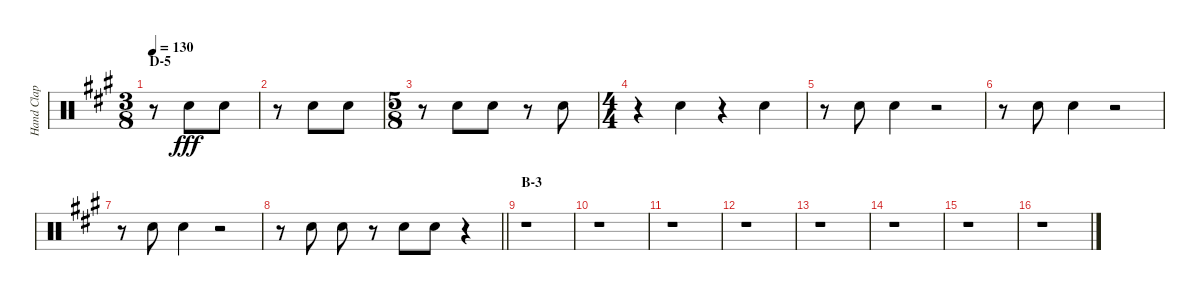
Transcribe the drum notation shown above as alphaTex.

\track ("Hand Clap" "Hand Clap") {instrument percussion}
\staff {score}
\articulation defaults
\ts (3 8)
\section ("" "D-5")
\tempo 130
\clef neutral
\ks a
r.8{dy fff} "Hand Clap (hit)".8 "Hand Clap (hit)".8 |
r.8 "Hand Clap (hit)".8 "Hand Clap (hit)".8 |
\ts (5 8)
r.8 "Hand Clap (hit)".8 "Hand Clap (hit)".8 r.8 "Hand Clap (hit)".8 |
\ts (4 4)
r.4 "Hand Clap (hit)".4 r.4 "Hand Clap (hit)".4 |
r.8 "Hand Clap (hit)".8 "Hand Clap (hit)".4 r.2 |
r.8 "Hand Clap (hit)".8 "Hand Clap (hit)".4 r.2 |
r.8 "Hand Clap (hit)".8 "Hand Clap (hit)".4 r.2 |
\barLineRight lightlight
r.8 "Hand Clap (hit)".8 "Hand Clap (hit)".8 r.8 "Hand Clap (hit)".8 "Hand Clap (hit)".8 r.4 |
\section ("" "B-3")
r.1 |
r.1 |
r.1 |
r.1 |
r.1 |
r.1 |
r.1 |
r.1
